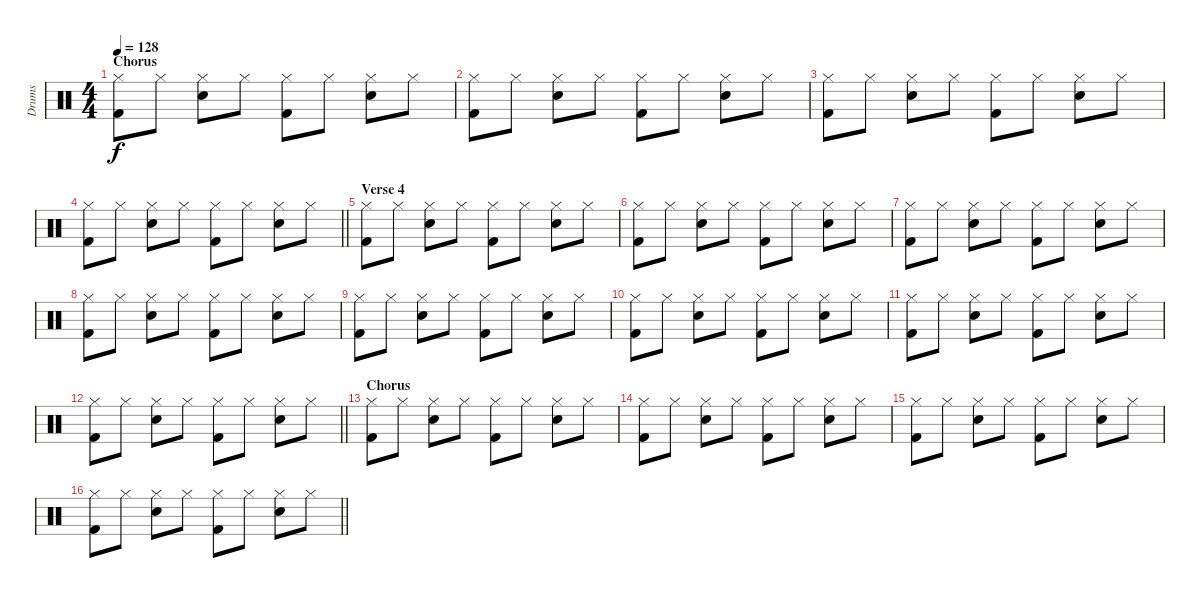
\track ("Drums" "Drums") {instrument percussion}
\staff {score}
\articulation defaults
\ts (4 4)
\section ("" "Chorus")
\tempo 128
\clef neutral
\ks c
("Hi-Hat (closed)" "Kick (hit) 2").8{dy f} "Hi-Hat (closed)".8 ("Hi-Hat (closed)" "Electric Snare (hit)").8 "Hi-Hat (closed)".8 ("Hi-Hat (closed)" "Kick (hit) 2").8 "Hi-Hat (closed)".8 ("Hi-Hat (closed)" "Electric Snare (hit)").8 "Hi-Hat (closed)".8 |
("Hi-Hat (closed)" "Kick (hit) 2").8 "Hi-Hat (closed)".8 ("Hi-Hat (closed)" "Electric Snare (hit)").8 "Hi-Hat (closed)".8 ("Hi-Hat (closed)" "Kick (hit) 2").8 "Hi-Hat (closed)".8 ("Hi-Hat (closed)" "Electric Snare (hit)").8 "Hi-Hat (closed)".8 |
("Hi-Hat (closed)" "Kick (hit) 2").8 "Hi-Hat (closed)".8 ("Hi-Hat (closed)" "Electric Snare (hit)").8 "Hi-Hat (closed)".8 ("Hi-Hat (closed)" "Kick (hit) 2").8 "Hi-Hat (closed)".8 ("Hi-Hat (closed)" "Electric Snare (hit)").8 "Hi-Hat (closed)".8 |
\barLineRight lightlight
("Hi-Hat (closed)" "Kick (hit) 2").8 "Hi-Hat (closed)".8 ("Hi-Hat (closed)" "Electric Snare (hit)").8 "Hi-Hat (closed)".8 ("Hi-Hat (closed)" "Kick (hit) 2").8 "Hi-Hat (closed)".8 ("Hi-Hat (closed)" "Electric Snare (hit)").8 "Hi-Hat (closed)".8 |
\section ("" "Verse 4")
("Hi-Hat (closed)" "Kick (hit) 2").8 "Hi-Hat (closed)".8 ("Hi-Hat (closed)" "Electric Snare (hit)").8 "Hi-Hat (closed)".8 ("Hi-Hat (closed)" "Kick (hit) 2").8 "Hi-Hat (closed)".8 ("Hi-Hat (closed)" "Electric Snare (hit)").8 "Hi-Hat (closed)".8 |
("Hi-Hat (closed)" "Kick (hit) 2").8 "Hi-Hat (closed)".8 ("Hi-Hat (closed)" "Electric Snare (hit)").8 "Hi-Hat (closed)".8 ("Hi-Hat (closed)" "Kick (hit) 2").8 "Hi-Hat (closed)".8 ("Hi-Hat (closed)" "Electric Snare (hit)").8 "Hi-Hat (closed)".8 |
("Hi-Hat (closed)" "Kick (hit) 2").8 "Hi-Hat (closed)".8 ("Hi-Hat (closed)" "Electric Snare (hit)").8 "Hi-Hat (closed)".8 ("Hi-Hat (closed)" "Kick (hit) 2").8 "Hi-Hat (closed)".8 ("Hi-Hat (closed)" "Electric Snare (hit)").8 "Hi-Hat (closed)".8 |
("Hi-Hat (closed)" "Kick (hit) 2").8 "Hi-Hat (closed)".8 ("Hi-Hat (closed)" "Electric Snare (hit)").8 "Hi-Hat (closed)".8 ("Hi-Hat (closed)" "Kick (hit) 2").8 "Hi-Hat (closed)".8 ("Hi-Hat (closed)" "Electric Snare (hit)").8 "Hi-Hat (closed)".8 |
("Hi-Hat (closed)" "Kick (hit) 2").8 "Hi-Hat (closed)".8 ("Hi-Hat (closed)" "Electric Snare (hit)").8 "Hi-Hat (closed)".8 ("Hi-Hat (closed)" "Kick (hit) 2").8 "Hi-Hat (closed)".8 ("Hi-Hat (closed)" "Electric Snare (hit)").8 "Hi-Hat (closed)".8 |
("Hi-Hat (closed)" "Kick (hit) 2").8 "Hi-Hat (closed)".8 ("Hi-Hat (closed)" "Electric Snare (hit)").8 "Hi-Hat (closed)".8 ("Hi-Hat (closed)" "Kick (hit) 2").8 "Hi-Hat (closed)".8 ("Hi-Hat (closed)" "Electric Snare (hit)").8 "Hi-Hat (closed)".8 |
("Hi-Hat (closed)" "Kick (hit) 2").8 "Hi-Hat (closed)".8 ("Hi-Hat (closed)" "Electric Snare (hit)").8 "Hi-Hat (closed)".8 ("Hi-Hat (closed)" "Kick (hit) 2").8 "Hi-Hat (closed)".8 ("Hi-Hat (closed)" "Electric Snare (hit)").8 "Hi-Hat (closed)".8 |
\barLineRight lightlight
("Hi-Hat (closed)" "Kick (hit) 2").8 "Hi-Hat (closed)".8 ("Hi-Hat (closed)" "Electric Snare (hit)").8 "Hi-Hat (closed)".8 ("Hi-Hat (closed)" "Kick (hit) 2").8 "Hi-Hat (closed)".8 ("Hi-Hat (closed)" "Electric Snare (hit)").8 "Hi-Hat (closed)".8 |
\section ("" "Chorus")
("Hi-Hat (closed)" "Kick (hit) 2").8 "Hi-Hat (closed)".8 ("Hi-Hat (closed)" "Electric Snare (hit)").8 "Hi-Hat (closed)".8 ("Hi-Hat (closed)" "Kick (hit) 2").8 "Hi-Hat (closed)".8 ("Hi-Hat (closed)" "Electric Snare (hit)").8 "Hi-Hat (closed)".8 |
("Hi-Hat (closed)" "Kick (hit) 2").8 "Hi-Hat (closed)".8 ("Hi-Hat (closed)" "Electric Snare (hit)").8 "Hi-Hat (closed)".8 ("Hi-Hat (closed)" "Kick (hit) 2").8 "Hi-Hat (closed)".8 ("Hi-Hat (closed)" "Electric Snare (hit)").8 "Hi-Hat (closed)".8 |
("Hi-Hat (closed)" "Kick (hit) 2").8 "Hi-Hat (closed)".8 ("Hi-Hat (closed)" "Electric Snare (hit)").8 "Hi-Hat (closed)".8 ("Hi-Hat (closed)" "Kick (hit) 2").8 "Hi-Hat (closed)".8 ("Hi-Hat (closed)" "Electric Snare (hit)").8 "Hi-Hat (closed)".8 |
\barLineRight lightlight
("Hi-Hat (closed)" "Kick (hit) 2").8 "Hi-Hat (closed)".8 ("Hi-Hat (closed)" "Electric Snare (hit)").8 "Hi-Hat (closed)".8 ("Hi-Hat (closed)" "Kick (hit) 2").8 "Hi-Hat (closed)".8 ("Hi-Hat (closed)" "Electric Snare (hit)").8 "Hi-Hat (closed)".8
